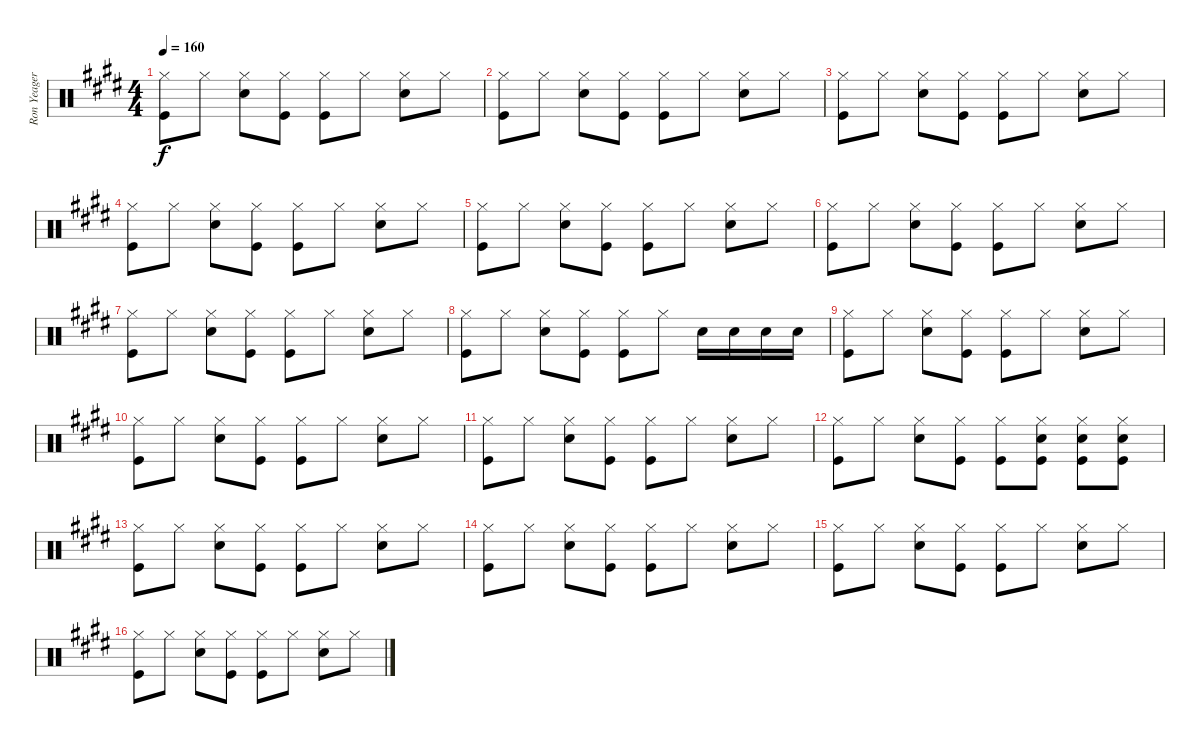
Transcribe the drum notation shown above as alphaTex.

\track ("Ron Yeager Drums" "Ron Yeager") {instrument percussion}
\staff {score}
\articulation defaults
\ts (4 4)
\tempo 160
\clef neutral
\ks e
("Hi-Hat (closed)" "Kick (hit)").8{dy f} "Hi-Hat (closed)".8 ("Hi-Hat (closed)" "Snare (hit) 2").8 ("Hi-Hat (closed)" "Kick (hit)").8 ("Hi-Hat (closed)" "Kick (hit)").8 "Hi-Hat (closed)".8 ("Hi-Hat (closed)" "Snare (hit) 2").8 "Hi-Hat (closed)".8 |
("Hi-Hat (closed)" "Kick (hit)").8 "Hi-Hat (closed)".8 ("Hi-Hat (closed)" "Snare (hit) 2").8 ("Hi-Hat (closed)" "Kick (hit)").8 ("Hi-Hat (closed)" "Kick (hit)").8 "Hi-Hat (closed)".8 ("Hi-Hat (closed)" "Snare (hit) 2").8 "Hi-Hat (closed)".8 |
("Hi-Hat (closed)" "Kick (hit)").8 "Hi-Hat (closed)".8 ("Hi-Hat (closed)" "Snare (hit) 2").8 ("Hi-Hat (closed)" "Kick (hit)").8 ("Hi-Hat (closed)" "Kick (hit)").8 "Hi-Hat (closed)".8 ("Hi-Hat (closed)" "Snare (hit) 2").8 "Hi-Hat (closed)".8 |
("Hi-Hat (closed)" "Kick (hit)").8 "Hi-Hat (closed)".8 ("Hi-Hat (closed)" "Snare (hit) 2").8 ("Hi-Hat (closed)" "Kick (hit)").8 ("Hi-Hat (closed)" "Kick (hit)").8 "Hi-Hat (closed)".8 ("Hi-Hat (closed)" "Snare (hit) 2").8 "Hi-Hat (closed)".8 |
("Hi-Hat (closed)" "Kick (hit)").8 "Hi-Hat (closed)".8 ("Hi-Hat (closed)" "Snare (hit) 2").8 ("Hi-Hat (closed)" "Kick (hit)").8 ("Hi-Hat (closed)" "Kick (hit)").8 "Hi-Hat (closed)".8 ("Hi-Hat (closed)" "Snare (hit) 2").8 "Hi-Hat (closed)".8 |
("Hi-Hat (closed)" "Kick (hit)").8 "Hi-Hat (closed)".8 ("Hi-Hat (closed)" "Snare (hit) 2").8 ("Hi-Hat (closed)" "Kick (hit)").8 ("Hi-Hat (closed)" "Kick (hit)").8 "Hi-Hat (closed)".8 ("Hi-Hat (closed)" "Snare (hit) 2").8 "Hi-Hat (closed)".8 |
("Hi-Hat (closed)" "Kick (hit)").8 "Hi-Hat (closed)".8 ("Hi-Hat (closed)" "Snare (hit) 2").8 ("Hi-Hat (closed)" "Kick (hit)").8 ("Hi-Hat (closed)" "Kick (hit)").8 "Hi-Hat (closed)".8 ("Hi-Hat (closed)" "Snare (hit) 2").8 "Hi-Hat (closed)".8 |
("Hi-Hat (closed)" "Kick (hit)").8 "Hi-Hat (closed)".8 ("Hi-Hat (closed)" "Snare (hit) 2").8 ("Hi-Hat (closed)" "Kick (hit)").8 ("Hi-Hat (closed)" "Kick (hit)").8 "Hi-Hat (closed)".8 "Snare (hit) 2".16 "Snare (hit) 2".16 "Snare (hit) 2".16 "Snare (hit) 2".16 |
("Hi-Hat (closed)" "Kick (hit)").8 "Hi-Hat (closed)".8 ("Hi-Hat (closed)" "Snare (hit) 2").8 ("Hi-Hat (closed)" "Kick (hit)").8 ("Hi-Hat (closed)" "Kick (hit)").8 "Hi-Hat (closed)".8 ("Hi-Hat (closed)" "Snare (hit) 2").8 "Hi-Hat (closed)".8 |
("Hi-Hat (closed)" "Kick (hit)").8 "Hi-Hat (closed)".8 ("Hi-Hat (closed)" "Snare (hit) 2").8 ("Hi-Hat (closed)" "Kick (hit)").8 ("Hi-Hat (closed)" "Kick (hit)").8 "Hi-Hat (closed)".8 ("Hi-Hat (closed)" "Snare (hit) 2").8 "Hi-Hat (closed)".8 |
("Hi-Hat (closed)" "Kick (hit)").8 "Hi-Hat (closed)".8 ("Hi-Hat (closed)" "Snare (hit) 2").8 ("Hi-Hat (closed)" "Kick (hit)").8 ("Hi-Hat (closed)" "Kick (hit)").8 "Hi-Hat (closed)".8 ("Hi-Hat (closed)" "Snare (hit) 2").8 "Hi-Hat (closed)".8 |
("Hi-Hat (closed)" "Kick (hit)").8 "Hi-Hat (closed)".8 ("Hi-Hat (closed)" "Snare (hit) 2").8 ("Hi-Hat (closed)" "Kick (hit)").8 ("Hi-Hat (closed)" "Kick (hit)").8 ("Hi-Hat (closed)" "Snare (hit) 2" "Kick (hit)").8 ("Hi-Hat (closed)" "Snare (hit) 2" "Kick (hit)").8 ("Hi-Hat (closed)" "Snare (hit) 2" "Kick (hit)").8 |
("Hi-Hat (closed)" "Kick (hit)").8 "Hi-Hat (closed)".8 ("Hi-Hat (closed)" "Snare (hit) 2").8 ("Hi-Hat (closed)" "Kick (hit)").8 ("Hi-Hat (closed)" "Kick (hit)").8 "Hi-Hat (closed)".8 ("Hi-Hat (closed)" "Snare (hit) 2").8 "Hi-Hat (closed)".8 |
("Hi-Hat (closed)" "Kick (hit)").8 "Hi-Hat (closed)".8 ("Hi-Hat (closed)" "Snare (hit) 2").8 ("Hi-Hat (closed)" "Kick (hit)").8 ("Hi-Hat (closed)" "Kick (hit)").8 "Hi-Hat (closed)".8 ("Hi-Hat (closed)" "Snare (hit) 2").8 "Hi-Hat (closed)".8 |
("Hi-Hat (closed)" "Kick (hit)").8 "Hi-Hat (closed)".8 ("Hi-Hat (closed)" "Snare (hit) 2").8 ("Hi-Hat (closed)" "Kick (hit)").8 ("Hi-Hat (closed)" "Kick (hit)").8 "Hi-Hat (closed)".8 ("Hi-Hat (closed)" "Snare (hit) 2").8 "Hi-Hat (closed)".8 |
("Hi-Hat (closed)" "Kick (hit)").8 "Hi-Hat (closed)".8 ("Hi-Hat (closed)" "Snare (hit) 2").8 ("Hi-Hat (closed)" "Kick (hit)").8 ("Hi-Hat (closed)" "Kick (hit)").8 "Hi-Hat (closed)".8 ("Hi-Hat (closed)" "Snare (hit) 2").8 "Hi-Hat (closed)".8
